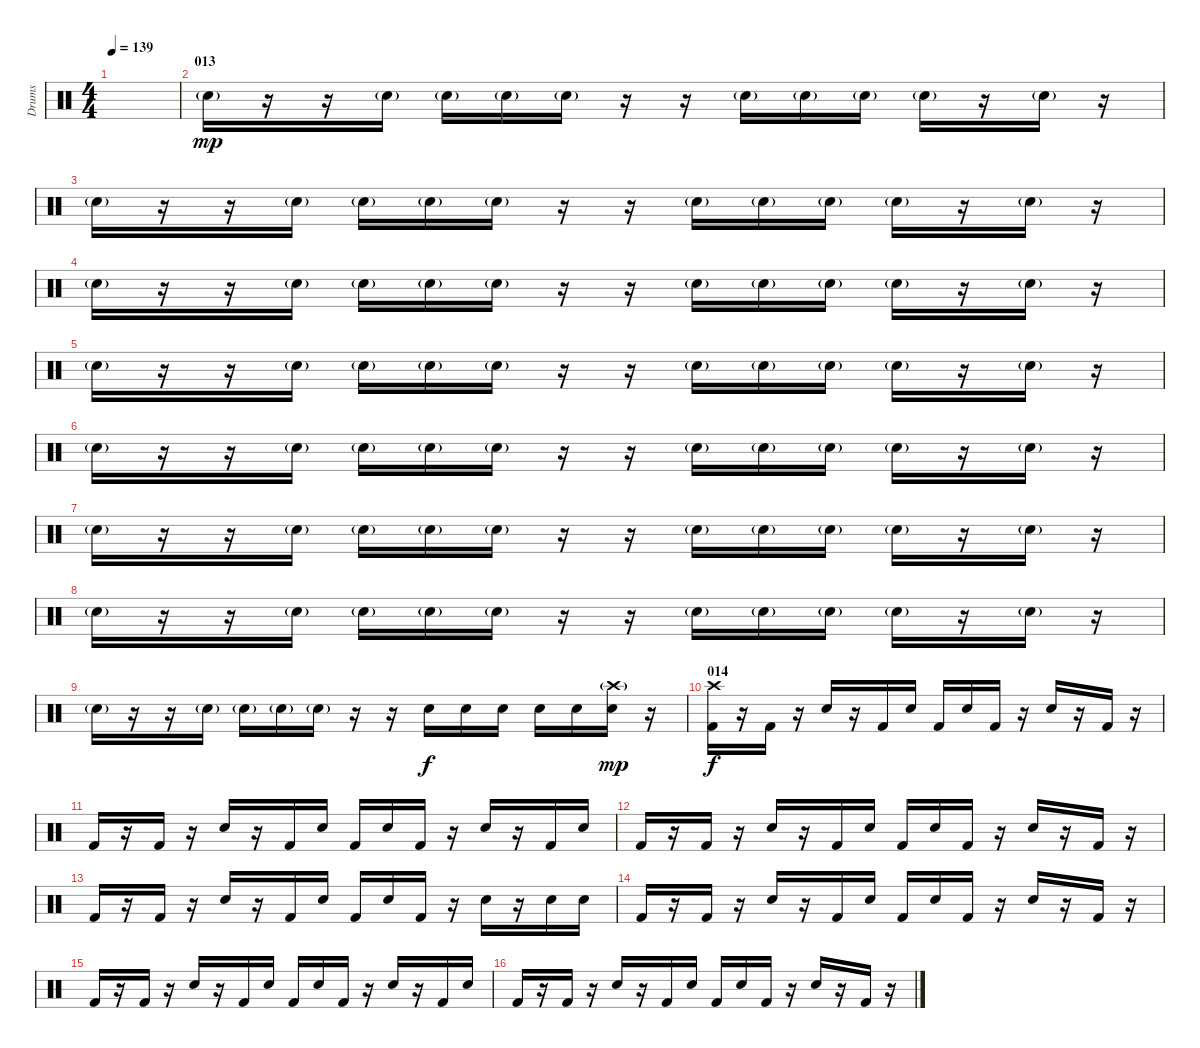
\track ("Drums" "Drums") {instrument percussion}
\staff {score}
\articulation defaults
\ts (4 4)
\tempo 139
\clef neutral
\ks c
|
\section ("" "013")
"Electric Snare (hit)"{g}.16{dy mp} r.16 r.16 "Electric Snare (hit)"{g}.16 "Electric Snare (hit)"{g}.16 "Electric Snare (hit)"{g}.16 "Electric Snare (hit)"{g}.16 r.16 r.16 "Electric Snare (hit)"{g}.16 "Electric Snare (hit)"{g}.16 "Electric Snare (hit)"{g}.16 "Electric Snare (hit)"{g}.16 r.16 "Electric Snare (hit)"{g}.16 r.16 |
"Electric Snare (hit)"{g}.16 r.16 r.16 "Electric Snare (hit)"{g}.16 "Electric Snare (hit)"{g}.16 "Electric Snare (hit)"{g}.16 "Electric Snare (hit)"{g}.16 r.16 r.16 "Electric Snare (hit)"{g}.16 "Electric Snare (hit)"{g}.16 "Electric Snare (hit)"{g}.16 "Electric Snare (hit)"{g}.16 r.16 "Electric Snare (hit)"{g}.16 r.16 |
"Electric Snare (hit)"{g}.16 r.16 r.16 "Electric Snare (hit)"{g}.16 "Electric Snare (hit)"{g}.16 "Electric Snare (hit)"{g}.16 "Electric Snare (hit)"{g}.16 r.16 r.16 "Electric Snare (hit)"{g}.16 "Electric Snare (hit)"{g}.16 "Electric Snare (hit)"{g}.16 "Electric Snare (hit)"{g}.16 r.16 "Electric Snare (hit)"{g}.16 r.16 |
"Electric Snare (hit)"{g}.16 r.16 r.16 "Electric Snare (hit)"{g}.16 "Electric Snare (hit)"{g}.16 "Electric Snare (hit)"{g}.16 "Electric Snare (hit)"{g}.16 r.16 r.16 "Electric Snare (hit)"{g}.16 "Electric Snare (hit)"{g}.16 "Electric Snare (hit)"{g}.16 "Electric Snare (hit)"{g}.16 r.16 "Electric Snare (hit)"{g}.16 r.16 |
"Electric Snare (hit)"{g}.16 r.16 r.16 "Electric Snare (hit)"{g}.16 "Electric Snare (hit)"{g}.16 "Electric Snare (hit)"{g}.16 "Electric Snare (hit)"{g}.16 r.16 r.16 "Electric Snare (hit)"{g}.16 "Electric Snare (hit)"{g}.16 "Electric Snare (hit)"{g}.16 "Electric Snare (hit)"{g}.16 r.16 "Electric Snare (hit)"{g}.16 r.16 |
"Electric Snare (hit)"{g}.16 r.16 r.16 "Electric Snare (hit)"{g}.16 "Electric Snare (hit)"{g}.16 "Electric Snare (hit)"{g}.16 "Electric Snare (hit)"{g}.16 r.16 r.16 "Electric Snare (hit)"{g}.16 "Electric Snare (hit)"{g}.16 "Electric Snare (hit)"{g}.16 "Electric Snare (hit)"{g}.16 r.16 "Electric Snare (hit)"{g}.16 r.16 |
"Electric Snare (hit)"{g}.16 r.16 r.16 "Electric Snare (hit)"{g}.16 "Electric Snare (hit)"{g}.16 "Electric Snare (hit)"{g}.16 "Electric Snare (hit)"{g}.16 r.16 r.16 "Electric Snare (hit)"{g}.16 "Electric Snare (hit)"{g}.16 "Electric Snare (hit)"{g}.16 "Electric Snare (hit)"{g}.16 r.16 "Electric Snare (hit)"{g}.16 r.16 |
"Electric Snare (hit)"{g}.16 r.16 r.16 "Electric Snare (hit)"{g}.16 "Electric Snare (hit)"{g}.16 "Electric Snare (hit)"{g}.16 "Electric Snare (hit)"{g}.16 r.16 r.16 "Electric Snare (hit)".16{dy f} "Electric Snare (hit)".16 "Electric Snare (hit)".16 "Electric Snare (hit)".16 "Electric Snare (hit)".16 ("Electric Snare (hit)" "Crash high (hit)"{g}).16{dy mp} r.16 |
\section ("" "014")
("Kick (hit) 2" "Crash high (hit)").16{dy f} r.16 "Kick (hit) 2".16 r.16 "Electric Snare (hit)".16 r.16 "Kick (hit) 2".16 "Electric Snare (hit)".16 "Kick (hit) 2".16 "Electric Snare (hit)".16 "Kick (hit) 2".16 r.16 "Electric Snare (hit)".16 r.16 "Kick (hit) 2".16 r.16 |
"Kick (hit) 2".16 r.16 "Kick (hit) 2".16 r.16 "Electric Snare (hit)".16 r.16 "Kick (hit) 2".16 "Electric Snare (hit)".16 "Kick (hit) 2".16 "Electric Snare (hit)".16 "Kick (hit) 2".16 r.16 "Electric Snare (hit)".16 r.16 "Kick (hit) 2".16 "Electric Snare (hit)".16 |
"Kick (hit) 2".16 r.16 "Kick (hit) 2".16 r.16 "Electric Snare (hit)".16 r.16 "Kick (hit) 2".16 "Electric Snare (hit)".16 "Kick (hit) 2".16 "Electric Snare (hit)".16 "Kick (hit) 2".16 r.16 "Electric Snare (hit)".16 r.16 "Kick (hit) 2".16 r.16 |
"Kick (hit) 2".16 r.16 "Kick (hit) 2".16 r.16 "Electric Snare (hit)".16 r.16 "Kick (hit) 2".16 "Electric Snare (hit)".16 "Kick (hit) 2".16 "Electric Snare (hit)".16 "Kick (hit) 2".16 r.16 "Electric Snare (hit)".16 r.16 "Electric Snare (hit)".16 "Electric Snare (hit)".16 |
"Kick (hit) 2".16 r.16 "Kick (hit) 2".16 r.16 "Electric Snare (hit)".16 r.16 "Kick (hit) 2".16 "Electric Snare (hit)".16 "Kick (hit) 2".16 "Electric Snare (hit)".16 "Kick (hit) 2".16 r.16 "Electric Snare (hit)".16 r.16 "Kick (hit) 2".16 r.16 |
"Kick (hit) 2".16 r.16 "Kick (hit) 2".16 r.16 "Electric Snare (hit)".16 r.16 "Kick (hit) 2".16 "Electric Snare (hit)".16 "Kick (hit) 2".16 "Electric Snare (hit)".16 "Kick (hit) 2".16 r.16 "Electric Snare (hit)".16 r.16 "Kick (hit) 2".16 "Electric Snare (hit)".16 |
"Kick (hit) 2".16 r.16 "Kick (hit) 2".16 r.16 "Electric Snare (hit)".16 r.16 "Kick (hit) 2".16 "Electric Snare (hit)".16 "Kick (hit) 2".16 "Electric Snare (hit)".16 "Kick (hit) 2".16 r.16 "Electric Snare (hit)".16 r.16 "Kick (hit) 2".16 r.16
